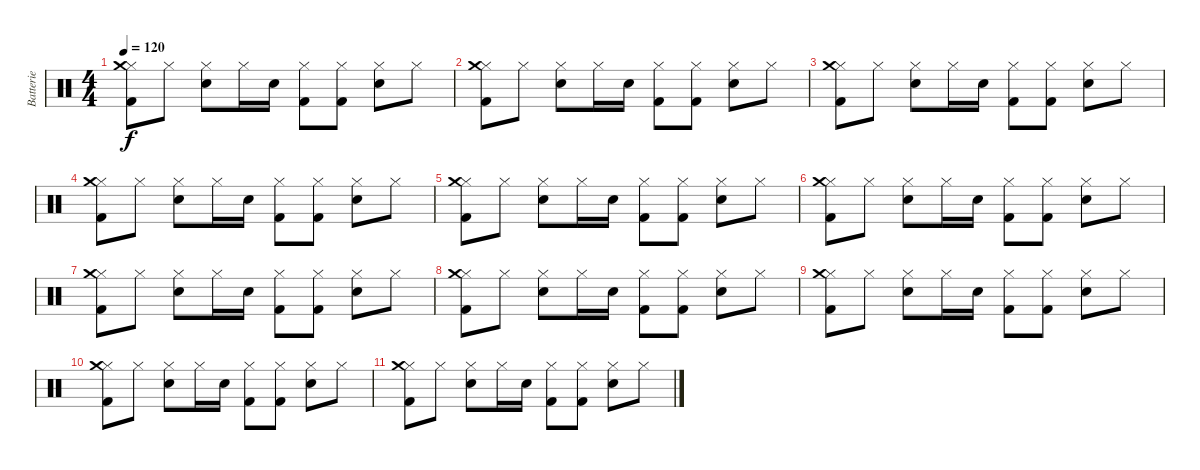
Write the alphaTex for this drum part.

\track ("Batterie" "Batterie") {instrument percussion}
\staff {score}
\articulation defaults
\ts (4 4)
\tempo 120
\clef neutral
\ks c
("Kick (hit) 2" "Hi-Hat (closed)" "Crash medium (hit)").8{dy f} "Hi-Hat (closed)".8 ("Snare (hit) 2" "Hi-Hat (closed)").8 "Hi-Hat (closed)".16 "Snare (hit) 2".16 ("Kick (hit) 2" "Hi-Hat (closed)").8 ("Kick (hit) 2" "Hi-Hat (closed)").8 ("Snare (hit) 2" "Hi-Hat (closed)").8 "Hi-Hat (closed)".8 |
("Kick (hit) 2" "Hi-Hat (closed)" "Crash medium (hit)").8 "Hi-Hat (closed)".8 ("Snare (hit) 2" "Hi-Hat (closed)").8 "Hi-Hat (closed)".16 "Snare (hit) 2".16 ("Kick (hit) 2" "Hi-Hat (closed)").8 ("Kick (hit) 2" "Hi-Hat (closed)").8 ("Snare (hit) 2" "Hi-Hat (closed)").8 "Hi-Hat (closed)".8 |
("Kick (hit) 2" "Hi-Hat (closed)" "Crash medium (hit)").8 "Hi-Hat (closed)".8 ("Snare (hit) 2" "Hi-Hat (closed)").8 "Hi-Hat (closed)".16 "Snare (hit) 2".16 ("Kick (hit) 2" "Hi-Hat (closed)").8 ("Kick (hit) 2" "Hi-Hat (closed)").8 ("Snare (hit) 2" "Hi-Hat (closed)").8 "Hi-Hat (closed)".8 |
("Kick (hit) 2" "Hi-Hat (closed)" "Crash medium (hit)").8 "Hi-Hat (closed)".8 ("Snare (hit) 2" "Hi-Hat (closed)").8 "Hi-Hat (closed)".16 "Snare (hit) 2".16 ("Kick (hit) 2" "Hi-Hat (closed)").8 ("Kick (hit) 2" "Hi-Hat (closed)").8 ("Snare (hit) 2" "Hi-Hat (closed)").8 "Hi-Hat (closed)".8 |
("Kick (hit) 2" "Hi-Hat (closed)" "Crash medium (hit)").8 "Hi-Hat (closed)".8 ("Snare (hit) 2" "Hi-Hat (closed)").8 "Hi-Hat (closed)".16 "Snare (hit) 2".16 ("Kick (hit) 2" "Hi-Hat (closed)").8 ("Kick (hit) 2" "Hi-Hat (closed)").8 ("Snare (hit) 2" "Hi-Hat (closed)").8 "Hi-Hat (closed)".8 |
("Kick (hit) 2" "Hi-Hat (closed)" "Crash medium (hit)").8 "Hi-Hat (closed)".8 ("Snare (hit) 2" "Hi-Hat (closed)").8 "Hi-Hat (closed)".16 "Snare (hit) 2".16 ("Kick (hit) 2" "Hi-Hat (closed)").8 ("Kick (hit) 2" "Hi-Hat (closed)").8 ("Snare (hit) 2" "Hi-Hat (closed)").8 "Hi-Hat (closed)".8 |
("Kick (hit) 2" "Hi-Hat (closed)" "Crash medium (hit)").8 "Hi-Hat (closed)".8 ("Snare (hit) 2" "Hi-Hat (closed)").8 "Hi-Hat (closed)".16 "Snare (hit) 2".16 ("Kick (hit) 2" "Hi-Hat (closed)").8 ("Kick (hit) 2" "Hi-Hat (closed)").8 ("Snare (hit) 2" "Hi-Hat (closed)").8 "Hi-Hat (closed)".8 |
("Kick (hit) 2" "Hi-Hat (closed)" "Crash medium (hit)").8 "Hi-Hat (closed)".8 ("Snare (hit) 2" "Hi-Hat (closed)").8 "Hi-Hat (closed)".16 "Snare (hit) 2".16 ("Kick (hit) 2" "Hi-Hat (closed)").8 ("Kick (hit) 2" "Hi-Hat (closed)").8 ("Snare (hit) 2" "Hi-Hat (closed)").8 "Hi-Hat (closed)".8 |
("Kick (hit) 2" "Hi-Hat (closed)" "Crash medium (hit)").8 "Hi-Hat (closed)".8 ("Snare (hit) 2" "Hi-Hat (closed)").8 "Hi-Hat (closed)".16 "Snare (hit) 2".16 ("Kick (hit) 2" "Hi-Hat (closed)").8 ("Kick (hit) 2" "Hi-Hat (closed)").8 ("Snare (hit) 2" "Hi-Hat (closed)").8 "Hi-Hat (closed)".8 |
("Kick (hit) 2" "Hi-Hat (closed)" "Crash medium (hit)").8 "Hi-Hat (closed)".8 ("Snare (hit) 2" "Hi-Hat (closed)").8 "Hi-Hat (closed)".16 "Snare (hit) 2".16 ("Kick (hit) 2" "Hi-Hat (closed)").8 ("Kick (hit) 2" "Hi-Hat (closed)").8 ("Snare (hit) 2" "Hi-Hat (closed)").8 "Hi-Hat (closed)".8 |
("Kick (hit) 2" "Hi-Hat (closed)" "Crash medium (hit)").8 "Hi-Hat (closed)".8 ("Snare (hit) 2" "Hi-Hat (closed)").8 "Hi-Hat (closed)".16 "Snare (hit) 2".16 ("Kick (hit) 2" "Hi-Hat (closed)").8 ("Kick (hit) 2" "Hi-Hat (closed)").8 ("Snare (hit) 2" "Hi-Hat (closed)").8 "Hi-Hat (closed)".8
